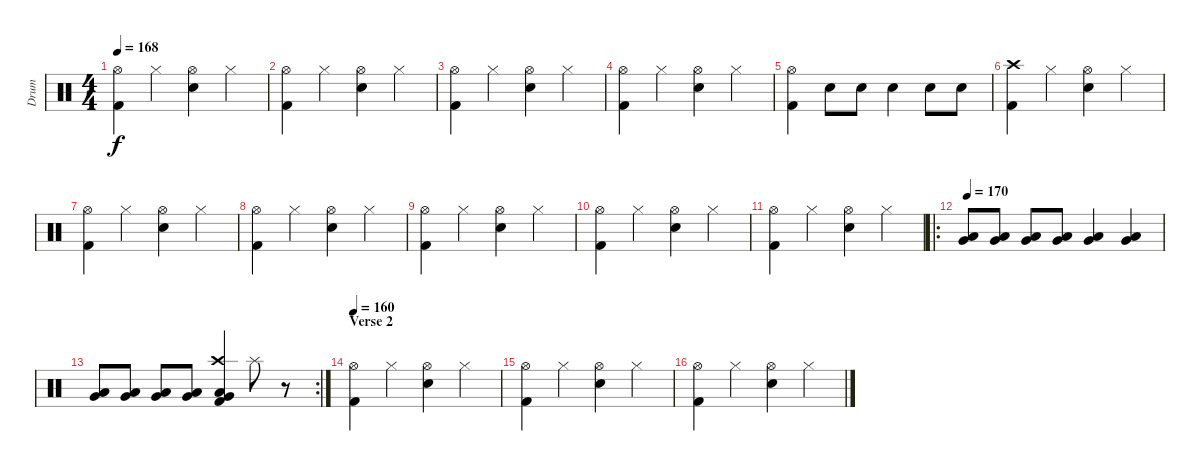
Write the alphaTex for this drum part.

\track ("Drum" "Drum") {instrument percussion}
\staff {score}
\articulation defaults
\ts (4 4)
\tempo 168
\clef neutral
\ks c
("Kick (hit) 2" "Hi-Hat (open)").4{dy f} "Hi-Hat (closed)".4 ("Electric Snare (hit)" "Hi-Hat (open)").4 "Hi-Hat (closed)".4 |
("Kick (hit) 2" "Hi-Hat (open)").4 "Hi-Hat (closed)".4 ("Electric Snare (hit)" "Hi-Hat (open)").4 "Hi-Hat (closed)".4 |
("Kick (hit) 2" "Hi-Hat (open)").4 "Hi-Hat (closed)".4 ("Electric Snare (hit)" "Hi-Hat (open)").4 "Hi-Hat (closed)".4 |
("Kick (hit) 2" "Hi-Hat (open)").4 "Hi-Hat (closed)".4 ("Electric Snare (hit)" "Hi-Hat (open)").4 "Hi-Hat (closed)".4 |
("Kick (hit) 2" "Hi-Hat (open)").4 "Electric Snare (hit)".8 "Electric Snare (hit)".8 "Electric Snare (hit)".4 "Electric Snare (hit)".8 "Electric Snare (hit)".8 |
\section ("" "")
("Kick (hit) 2" "Crash high (hit)").4 "Hi-Hat (closed)".4 ("Electric Snare (hit)" "Hi-Hat (open)").4 "Hi-Hat (closed)".4 |
("Kick (hit) 2" "Hi-Hat (open)").4 "Hi-Hat (closed)".4 ("Electric Snare (hit)" "Hi-Hat (open)").4 "Hi-Hat (closed)".4 |
("Kick (hit) 2" "Hi-Hat (open)").4 "Hi-Hat (closed)".4 ("Electric Snare (hit)" "Hi-Hat (open)").4 "Hi-Hat (closed)".4 |
("Kick (hit) 2" "Hi-Hat (open)").4 "Hi-Hat (closed)".4 ("Electric Snare (hit)" "Hi-Hat (open)").4 "Hi-Hat (closed)".4 |
("Kick (hit) 2" "Hi-Hat (open)").4 "Hi-Hat (closed)".4 ("Electric Snare (hit)" "Hi-Hat (open)").4 "Hi-Hat (closed)".4 |
("Kick (hit) 2" "Hi-Hat (open)").4 "Hi-Hat (closed)".4 ("Electric Snare (hit)" "Hi-Hat (open)").4 "Hi-Hat (closed)".4 |
\ro
\tempo 170
("Very Low Tom (hit)" "Low Tom (hit)").8 ("Very Low Tom (hit)" "Low Tom (hit)").8 ("Very Low Tom (hit)" "Low Tom (hit)").8 ("Very Low Tom (hit)" "Low Tom (hit)").8 ("Very Low Tom (hit)" "Low Tom (hit)").4 ("Very Low Tom (hit)" "Low Tom (hit)").4 |
\rc 2
("Very Low Tom (hit)" "Low Tom (hit)").8 ("Very Low Tom (hit)" "Low Tom (hit)").8 ("Very Low Tom (hit)" "Low Tom (hit)").8 ("Very Low Tom (hit)" "Low Tom (hit)").8 ("Kick (hit) 2" "Very Low Tom (hit)" "Low Tom (hit)" "Crash high (hit)").4 "Splash (hit)".8 r.8 |
\section ("" "Verse 2")
\tempo 160
("Kick (hit) 2" "Hi-Hat (open)").4 "Hi-Hat (closed)".4 ("Electric Snare (hit)" "Hi-Hat (open)").4 "Hi-Hat (closed)".4 |
("Kick (hit) 2" "Hi-Hat (open)").4 "Hi-Hat (closed)".4 ("Electric Snare (hit)" "Hi-Hat (open)").4 "Hi-Hat (closed)".4 |
("Kick (hit) 2" "Hi-Hat (open)").4 "Hi-Hat (closed)".4 ("Electric Snare (hit)" "Hi-Hat (open)").4 "Hi-Hat (closed)".4
